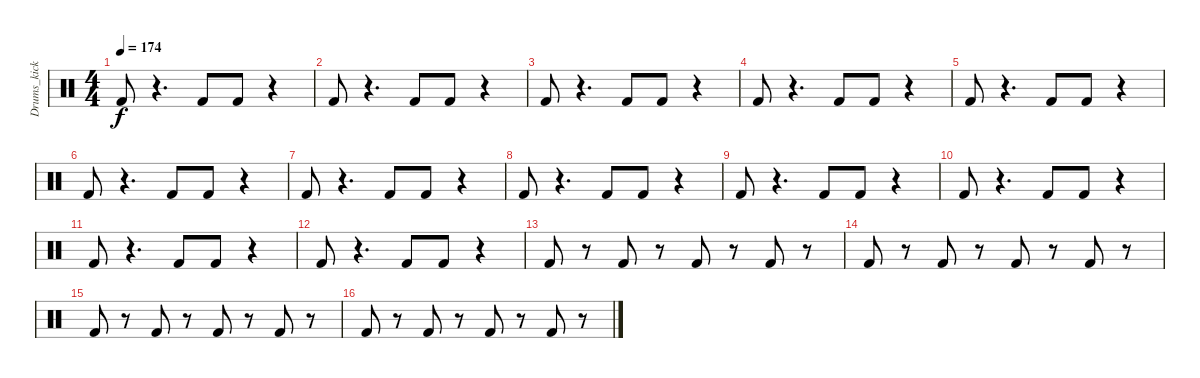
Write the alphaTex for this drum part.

\track ("Drums_kick" "Drums_kick") {instrument percussion}
\staff {score}
\articulation defaults
\ts (4 4)
\tempo 174
\clef neutral
\ks c "Kick (hit) 2".8{dy f}
r.4{d} "Kick (hit) 2".8 "Kick (hit) 2".8 r.4 |
"Kick (hit) 2".8 r.4{d} "Kick (hit) 2".8 "Kick (hit) 2".8 r.4 |
"Kick (hit) 2".8 r.4{d} "Kick (hit) 2".8 "Kick (hit) 2".8 r.4 |
"Kick (hit) 2".8 r.4{d} "Kick (hit) 2".8 "Kick (hit) 2".8 r.4 |
"Kick (hit) 2".8 r.4{d} "Kick (hit) 2".8 "Kick (hit) 2".8 r.4 |
"Kick (hit) 2".8 r.4{d} "Kick (hit) 2".8 "Kick (hit) 2".8 r.4 |
"Kick (hit) 2".8 r.4{d} "Kick (hit) 2".8 "Kick (hit) 2".8 r.4 |
"Kick (hit) 2".8 r.4{d} "Kick (hit) 2".8 "Kick (hit) 2".8 r.4 |
"Kick (hit) 2".8 r.4{d} "Kick (hit) 2".8 "Kick (hit) 2".8 r.4 |
"Kick (hit) 2".8 r.4{d} "Kick (hit) 2".8 "Kick (hit) 2".8 r.4 |
"Kick (hit) 2".8 r.4{d} "Kick (hit) 2".8 "Kick (hit) 2".8 r.4 |
"Kick (hit) 2".8 r.4{d} "Kick (hit) 2".8 "Kick (hit) 2".8 r.4 |
"Kick (hit) 2".8 r.8 "Kick (hit) 2".8 r.8 "Kick (hit) 2".8 r.8 "Kick (hit) 2".8 r.8 |
"Kick (hit) 2".8 r.8 "Kick (hit) 2".8 r.8 "Kick (hit) 2".8 r.8 "Kick (hit) 2".8 r.8 |
"Kick (hit) 2".8 r.8 "Kick (hit) 2".8 r.8 "Kick (hit) 2".8 r.8 "Kick (hit) 2".8 r.8 |
"Kick (hit) 2".8 r.8 "Kick (hit) 2".8 r.8 "Kick (hit) 2".8 r.8 "Kick (hit) 2".8 r.8
